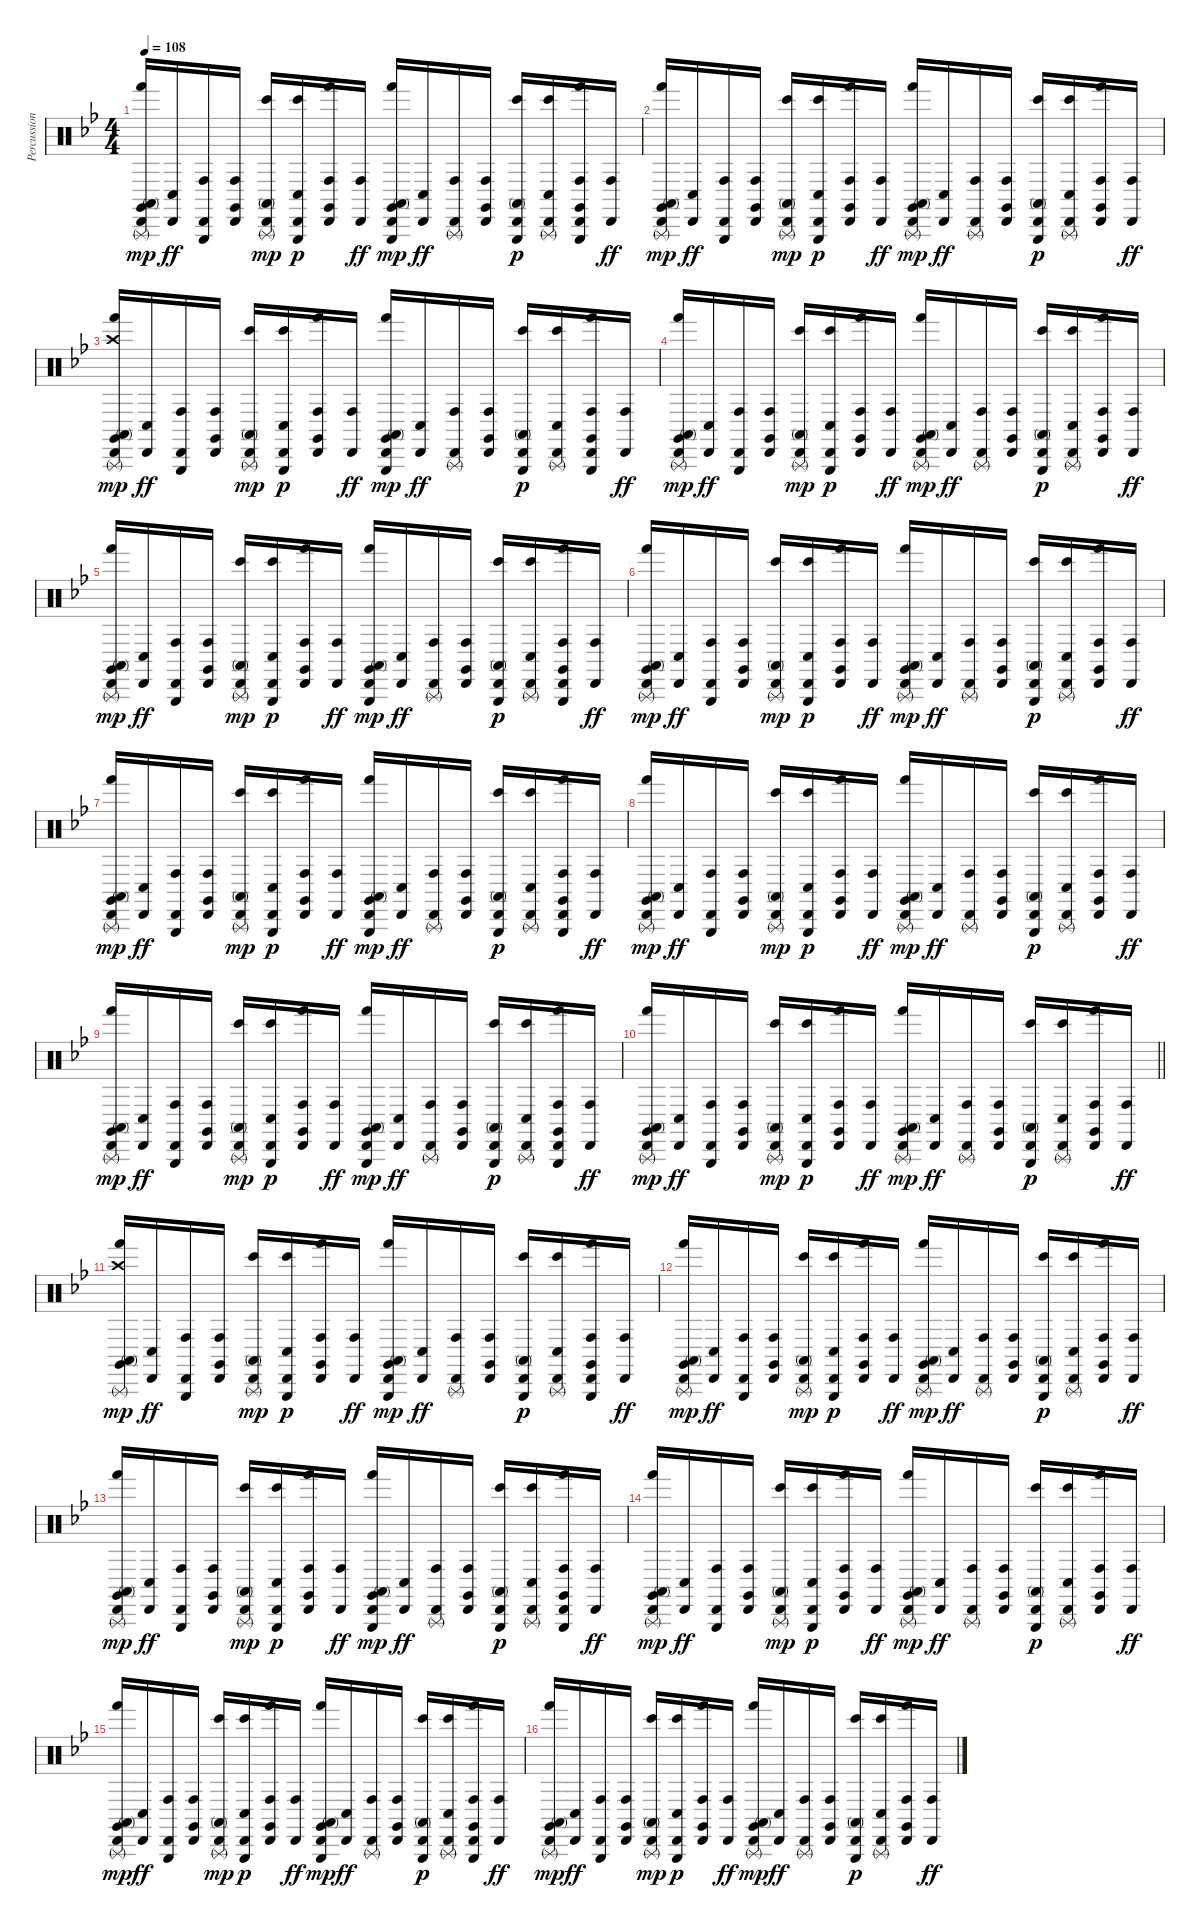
\track ("Percussion" "Percussion") {instrument percussion}
\staff {score}
\articulation defaults
\ts (4 4)
\tempo 108
\clef neutral
\ks gminor
("Cabasa (hit)" "Claves (hit)" "Triangle (rnute)" "Conga high (mute)" "Hand (hit)").16{dy mp} ("Cabasa (hit)" "Conga low (hit)").16{dy ff} ("Cabasa (hit)" "Triangle (hit)" "Conga high (hit)").16 ("Cabasa (hit)" "Claves (hit)" "Conga high (hit)").16 ("Cabasa (hit)" "Triangle (rnute)" "Conga high (mute)" "Bongo High (hit)").16{dy mp} ("Cabasa (hit)" "Triangle (hit)" "Conga low (hit)" "Bongo High (hit)").16{dy p} ("Cabasa (hit)" "Claves (hit)" "Conga high (hit)" "Hand (hit)").16 ("Cabasa (hit)" "Conga high (hit)").16{dy ff} ("Cabasa (hit)" "Claves (hit)" "Triangle (hit)" "Conga high (mute)" "Hand (hit)").16{dy mp} ("Cabasa (hit)" "Conga low (hit)").16{dy ff} ("Cabasa (hit)" "Triangle (rnute)" "Conga high (hit)").16 ("Cabasa (hit)" "Claves (hit)" "Conga high (hit)").16 ("Cabasa (hit)" "Triangle (hit)" "Conga high (mute)" "Bongo High (hit)").16{dy p} ("Cabasa (hit)" "Triangle (rnute)" "Conga low (hit)" "Bongo High (hit)").16 ("Cabasa (hit)" "Claves (hit)" "Triangle (hit)" "Conga high (hit)" "Hand (hit)").16 ("Cabasa (hit)" "Conga high (hit)").16{dy ff} |
("Cabasa (hit)" "Triangle (rnute)" "Claves (hit)" "Conga high (mute)" "Hand (hit)").16{dy mp} ("Cabasa (hit)" "Conga low (hit)").16{dy ff} ("Cabasa (hit)" "Triangle (hit)" "Conga high (hit)").16 ("Cabasa (hit)" "Claves (hit)" "Conga high (hit)").16 ("Cabasa (hit)" "Triangle (rnute)" "Conga high (mute)" "Bongo High (hit)").16{dy mp} ("Cabasa (hit)" "Triangle (hit)" "Conga low (hit)" "Bongo High (hit)").16{dy p} ("Cabasa (hit)" "Claves (hit)" "Conga high (hit)" "Hand (hit)").16 ("Cabasa (hit)" "Conga high (hit)").16{dy ff} ("Cabasa (hit)" "Triangle (rnute)" "Claves (hit)" "Conga high (mute)" "Hand (hit)").16{dy mp} ("Cabasa (hit)" "Conga low (hit)").16{dy ff} ("Cabasa (hit)" "Triangle (rnute)" "Conga high (hit)").16 ("Cabasa (hit)" "Claves (hit)" "Conga high (hit)").16 ("Cabasa (hit)" "Triangle (hit)" "Conga high (mute)" "Bongo High (hit)").16{dy p} ("Cabasa (hit)" "Triangle (rnute)" "Conga low (hit)" "Bongo High (hit)").16 ("Cabasa (hit)" "Claves (hit)" "Conga high (hit)" "Hand (hit)").16 ("Cabasa (hit)" "Conga high (hit)").16{dy ff} |
("Crash high (hit)" "Cabasa (hit)" "Claves (hit)" "Triangle (rnute)" "Conga high (mute)" "Hand (hit)").16{dy mp} ("Cabasa (hit)" "Conga low (hit)").16{dy ff} ("Cabasa (hit)" "Triangle (hit)" "Conga high (hit)").16 ("Cabasa (hit)" "Claves (hit)" "Conga high (hit)").16 ("Cabasa (hit)" "Triangle (rnute)" "Conga high (mute)" "Bongo High (hit)").16{dy mp} ("Cabasa (hit)" "Triangle (hit)" "Conga low (hit)" "Bongo High (hit)").16{dy p} ("Cabasa (hit)" "Claves (hit)" "Conga high (hit)" "Hand (hit)").16 ("Cabasa (hit)" "Conga high (hit)").16{dy ff} ("Cabasa (hit)" "Claves (hit)" "Triangle (hit)" "Conga high (mute)" "Hand (hit)").16{dy mp} ("Cabasa (hit)" "Conga low (hit)").16{dy ff} ("Cabasa (hit)" "Triangle (rnute)" "Conga high (hit)").16 ("Cabasa (hit)" "Claves (hit)" "Conga high (hit)").16 ("Cabasa (hit)" "Triangle (hit)" "Conga high (mute)" "Bongo High (hit)").16{dy p} ("Cabasa (hit)" "Triangle (rnute)" "Conga low (hit)" "Bongo High (hit)").16 ("Cabasa (hit)" "Claves (hit)" "Triangle (hit)" "Conga high (hit)" "Hand (hit)").16 ("Cabasa (hit)" "Conga high (hit)").16{dy ff} |
("Cabasa (hit)" "Triangle (rnute)" "Claves (hit)" "Conga high (mute)" "Hand (hit)").16{dy mp} ("Cabasa (hit)" "Conga low (hit)").16{dy ff} ("Cabasa (hit)" "Triangle (hit)" "Conga high (hit)").16 ("Cabasa (hit)" "Claves (hit)" "Conga high (hit)").16 ("Cabasa (hit)" "Triangle (rnute)" "Conga high (mute)" "Bongo High (hit)").16{dy mp} ("Cabasa (hit)" "Triangle (hit)" "Conga low (hit)" "Bongo High (hit)").16{dy p} ("Cabasa (hit)" "Claves (hit)" "Conga high (hit)" "Hand (hit)").16 ("Cabasa (hit)" "Conga high (hit)").16{dy ff} ("Cabasa (hit)" "Triangle (rnute)" "Claves (hit)" "Conga high (mute)" "Hand (hit)").16{dy mp} ("Cabasa (hit)" "Conga low (hit)").16{dy ff} ("Cabasa (hit)" "Triangle (rnute)" "Conga high (hit)").16 ("Cabasa (hit)" "Claves (hit)" "Conga high (hit)").16 ("Cabasa (hit)" "Triangle (hit)" "Conga high (mute)" "Bongo High (hit)").16{dy p} ("Cabasa (hit)" "Triangle (rnute)" "Conga low (hit)" "Bongo High (hit)").16 ("Cabasa (hit)" "Claves (hit)" "Conga high (hit)" "Hand (hit)").16 ("Cabasa (hit)" "Conga high (hit)").16{dy ff} |
("Cabasa (hit)" "Claves (hit)" "Triangle (rnute)" "Conga high (mute)" "Hand (hit)").16{dy mp} ("Cabasa (hit)" "Conga low (hit)").16{dy ff} ("Cabasa (hit)" "Triangle (hit)" "Conga high (hit)").16 ("Cabasa (hit)" "Claves (hit)" "Conga high (hit)").16 ("Cabasa (hit)" "Triangle (rnute)" "Conga high (mute)" "Bongo High (hit)").16{dy mp} ("Cabasa (hit)" "Triangle (hit)" "Conga low (hit)" "Bongo High (hit)").16{dy p} ("Cabasa (hit)" "Claves (hit)" "Conga high (hit)" "Hand (hit)").16 ("Cabasa (hit)" "Conga high (hit)").16{dy ff} ("Cabasa (hit)" "Claves (hit)" "Triangle (hit)" "Conga high (mute)" "Hand (hit)").16{dy mp} ("Cabasa (hit)" "Conga low (hit)").16{dy ff} ("Cabasa (hit)" "Triangle (rnute)" "Conga high (hit)").16 ("Cabasa (hit)" "Claves (hit)" "Conga high (hit)").16 ("Cabasa (hit)" "Triangle (hit)" "Conga high (mute)" "Bongo High (hit)").16{dy p} ("Cabasa (hit)" "Triangle (rnute)" "Conga low (hit)" "Bongo High (hit)").16 ("Cabasa (hit)" "Claves (hit)" "Triangle (hit)" "Conga high (hit)" "Hand (hit)").16 ("Cabasa (hit)" "Conga high (hit)").16{dy ff} |
("Cabasa (hit)" "Triangle (rnute)" "Claves (hit)" "Conga high (mute)" "Hand (hit)").16{dy mp} ("Cabasa (hit)" "Conga low (hit)").16{dy ff} ("Cabasa (hit)" "Triangle (hit)" "Conga high (hit)").16 ("Cabasa (hit)" "Claves (hit)" "Conga high (hit)").16 ("Cabasa (hit)" "Triangle (rnute)" "Conga high (mute)" "Bongo High (hit)").16{dy mp} ("Cabasa (hit)" "Triangle (hit)" "Conga low (hit)" "Bongo High (hit)").16{dy p} ("Cabasa (hit)" "Claves (hit)" "Conga high (hit)" "Hand (hit)").16 ("Cabasa (hit)" "Conga high (hit)").16{dy ff} ("Cabasa (hit)" "Triangle (rnute)" "Claves (hit)" "Conga high (mute)" "Hand (hit)").16{dy mp} ("Cabasa (hit)" "Conga low (hit)").16{dy ff} ("Cabasa (hit)" "Triangle (rnute)" "Conga high (hit)").16 ("Cabasa (hit)" "Claves (hit)" "Conga high (hit)").16 ("Cabasa (hit)" "Triangle (hit)" "Conga high (mute)" "Bongo High (hit)").16{dy p} ("Cabasa (hit)" "Triangle (rnute)" "Conga low (hit)" "Bongo High (hit)").16 ("Cabasa (hit)" "Claves (hit)" "Conga high (hit)" "Hand (hit)").16 ("Cabasa (hit)" "Conga high (hit)").16{dy ff} |
("Cabasa (hit)" "Claves (hit)" "Triangle (rnute)" "Conga high (mute)" "Hand (hit)").16{dy mp} ("Cabasa (hit)" "Conga low (hit)").16{dy ff} ("Cabasa (hit)" "Triangle (hit)" "Conga high (hit)").16 ("Cabasa (hit)" "Claves (hit)" "Conga high (hit)").16 ("Cabasa (hit)" "Triangle (rnute)" "Conga high (mute)" "Bongo High (hit)").16{dy mp} ("Cabasa (hit)" "Triangle (hit)" "Conga low (hit)" "Bongo High (hit)").16{dy p} ("Cabasa (hit)" "Claves (hit)" "Conga high (hit)" "Hand (hit)").16 ("Cabasa (hit)" "Conga high (hit)").16{dy ff} ("Cabasa (hit)" "Claves (hit)" "Triangle (hit)" "Conga high (mute)" "Hand (hit)").16{dy mp} ("Cabasa (hit)" "Conga low (hit)").16{dy ff} ("Cabasa (hit)" "Triangle (rnute)" "Conga high (hit)").16 ("Cabasa (hit)" "Claves (hit)" "Conga high (hit)").16 ("Cabasa (hit)" "Triangle (hit)" "Conga high (mute)" "Bongo High (hit)").16{dy p} ("Cabasa (hit)" "Triangle (rnute)" "Conga low (hit)" "Bongo High (hit)").16 ("Cabasa (hit)" "Claves (hit)" "Triangle (hit)" "Conga high (hit)" "Hand (hit)").16 ("Cabasa (hit)" "Conga high (hit)").16{dy ff} |
("Cabasa (hit)" "Triangle (rnute)" "Claves (hit)" "Conga high (mute)" "Hand (hit)").16{dy mp} ("Cabasa (hit)" "Conga low (hit)").16{dy ff} ("Cabasa (hit)" "Triangle (hit)" "Conga high (hit)").16 ("Cabasa (hit)" "Claves (hit)" "Conga high (hit)").16 ("Cabasa (hit)" "Triangle (rnute)" "Conga high (mute)" "Bongo High (hit)").16{dy mp} ("Cabasa (hit)" "Triangle (hit)" "Conga low (hit)" "Bongo High (hit)").16{dy p} ("Cabasa (hit)" "Claves (hit)" "Conga high (hit)" "Hand (hit)").16 ("Cabasa (hit)" "Conga high (hit)").16{dy ff} ("Cabasa (hit)" "Triangle (rnute)" "Claves (hit)" "Conga high (mute)" "Hand (hit)").16{dy mp} ("Cabasa (hit)" "Conga low (hit)").16{dy ff} ("Cabasa (hit)" "Triangle (rnute)" "Conga high (hit)").16 ("Cabasa (hit)" "Claves (hit)" "Conga high (hit)").16 ("Cabasa (hit)" "Triangle (hit)" "Conga high (mute)" "Bongo High (hit)").16{dy p} ("Cabasa (hit)" "Triangle (rnute)" "Conga low (hit)" "Bongo High (hit)").16 ("Cabasa (hit)" "Claves (hit)" "Conga high (hit)" "Hand (hit)").16 ("Cabasa (hit)" "Conga high (hit)").16{dy ff} |
("Cabasa (hit)" "Claves (hit)" "Triangle (rnute)" "Conga high (mute)" "Hand (hit)").16{dy mp} ("Cabasa (hit)" "Conga low (hit)").16{dy ff} ("Cabasa (hit)" "Triangle (hit)" "Conga high (hit)").16 ("Cabasa (hit)" "Claves (hit)" "Conga high (hit)").16 ("Cabasa (hit)" "Triangle (rnute)" "Conga high (mute)" "Bongo High (hit)").16{dy mp} ("Cabasa (hit)" "Triangle (hit)" "Conga low (hit)" "Bongo High (hit)").16{dy p} ("Cabasa (hit)" "Claves (hit)" "Conga high (hit)" "Hand (hit)").16 ("Cabasa (hit)" "Conga high (hit)").16{dy ff} ("Cabasa (hit)" "Claves (hit)" "Triangle (hit)" "Conga high (mute)" "Hand (hit)").16{dy mp} ("Cabasa (hit)" "Conga low (hit)").16{dy ff} ("Cabasa (hit)" "Triangle (rnute)" "Conga high (hit)").16 ("Cabasa (hit)" "Claves (hit)" "Conga high (hit)").16 ("Cabasa (hit)" "Triangle (hit)" "Conga high (mute)" "Bongo High (hit)").16{dy p} ("Cabasa (hit)" "Triangle (rnute)" "Conga low (hit)" "Bongo High (hit)").16 ("Cabasa (hit)" "Claves (hit)" "Triangle (hit)" "Conga high (hit)" "Hand (hit)").16 ("Cabasa (hit)" "Conga high (hit)").16{dy ff} |
\barLineRight lightlight
("Cabasa (hit)" "Triangle (rnute)" "Claves (hit)" "Conga high (mute)" "Hand (hit)").16{dy mp} ("Cabasa (hit)" "Conga low (hit)").16{dy ff} ("Cabasa (hit)" "Triangle (hit)" "Conga high (hit)").16 ("Cabasa (hit)" "Claves (hit)" "Conga high (hit)").16 ("Cabasa (hit)" "Triangle (rnute)" "Conga high (mute)" "Bongo High (hit)").16{dy mp} ("Cabasa (hit)" "Triangle (hit)" "Conga low (hit)" "Bongo High (hit)").16{dy p} ("Cabasa (hit)" "Claves (hit)" "Conga high (hit)" "Hand (hit)").16 ("Cabasa (hit)" "Conga high (hit)").16{dy ff} ("Cabasa (hit)" "Triangle (rnute)" "Claves (hit)" "Conga high (mute)" "Hand (hit)").16{dy mp} ("Cabasa (hit)" "Conga low (hit)").16{dy ff} ("Cabasa (hit)" "Triangle (rnute)" "Conga high (hit)").16 ("Cabasa (hit)" "Claves (hit)" "Conga high (hit)").16 ("Cabasa (hit)" "Triangle (hit)" "Conga high (mute)" "Bongo High (hit)").16{dy p} ("Cabasa (hit)" "Triangle (rnute)" "Conga low (hit)" "Bongo High (hit)").16 ("Cabasa (hit)" "Claves (hit)" "Conga high (hit)" "Hand (hit)").16 ("Cabasa (hit)" "Conga high (hit)").16{dy ff} |
\section ("" "")
("Crash high (hit)" "Claves (hit)" "Triangle (rnute)" "Conga high (mute)" "Hand (hit)").16{dy mp} ("Cabasa (hit)" "Conga low (hit)").16{dy ff} ("Cabasa (hit)" "Triangle (hit)" "Conga high (hit)").16 ("Cabasa (hit)" "Claves (hit)" "Conga high (hit)").16 ("Cabasa (hit)" "Triangle (rnute)" "Conga high (mute)" "Bongo High (hit)").16{dy mp} ("Cabasa (hit)" "Triangle (hit)" "Conga low (hit)" "Bongo High (hit)").16{dy p} ("Cabasa (hit)" "Claves (hit)" "Conga high (hit)" "Hand (hit)").16 ("Cabasa (hit)" "Conga high (hit)").16{dy ff} ("Cabasa (hit)" "Claves (hit)" "Triangle (hit)" "Conga high (mute)" "Hand (hit)").16{dy mp} ("Cabasa (hit)" "Conga low (hit)").16{dy ff} ("Cabasa (hit)" "Triangle (rnute)" "Conga high (hit)").16 ("Cabasa (hit)" "Claves (hit)" "Conga high (hit)").16 ("Cabasa (hit)" "Triangle (hit)" "Conga high (mute)" "Bongo High (hit)").16{dy p} ("Cabasa (hit)" "Triangle (rnute)" "Conga low (hit)" "Bongo High (hit)").16 ("Cabasa (hit)" "Claves (hit)" "Triangle (hit)" "Conga high (hit)" "Hand (hit)").16 ("Cabasa (hit)" "Conga high (hit)").16{dy ff} |
("Cabasa (hit)" "Triangle (rnute)" "Claves (hit)" "Conga high (mute)" "Hand (hit)").16{dy mp} ("Cabasa (hit)" "Conga low (hit)").16{dy ff} ("Cabasa (hit)" "Triangle (hit)" "Conga high (hit)").16 ("Cabasa (hit)" "Claves (hit)" "Conga high (hit)").16 ("Cabasa (hit)" "Triangle (rnute)" "Conga high (mute)" "Bongo High (hit)").16{dy mp} ("Cabasa (hit)" "Triangle (hit)" "Conga low (hit)" "Bongo High (hit)").16{dy p} ("Cabasa (hit)" "Claves (hit)" "Conga high (hit)" "Hand (hit)").16 ("Cabasa (hit)" "Conga high (hit)").16{dy ff} ("Cabasa (hit)" "Triangle (rnute)" "Claves (hit)" "Conga high (mute)" "Hand (hit)").16{dy mp} ("Cabasa (hit)" "Conga low (hit)").16{dy ff} ("Cabasa (hit)" "Triangle (rnute)" "Conga high (hit)").16 ("Cabasa (hit)" "Claves (hit)" "Conga high (hit)").16 ("Cabasa (hit)" "Triangle (hit)" "Conga high (mute)" "Bongo High (hit)").16{dy p} ("Cabasa (hit)" "Triangle (rnute)" "Conga low (hit)" "Bongo High (hit)").16 ("Cabasa (hit)" "Claves (hit)" "Conga high (hit)" "Hand (hit)").16 ("Cabasa (hit)" "Conga high (hit)").16{dy ff} |
("Cabasa (hit)" "Claves (hit)" "Triangle (rnute)" "Conga high (mute)" "Hand (hit)").16{dy mp} ("Cabasa (hit)" "Conga low (hit)").16{dy ff} ("Cabasa (hit)" "Triangle (hit)" "Conga high (hit)").16 ("Cabasa (hit)" "Claves (hit)" "Conga high (hit)").16 ("Cabasa (hit)" "Triangle (rnute)" "Conga high (mute)" "Bongo High (hit)").16{dy mp} ("Cabasa (hit)" "Triangle (hit)" "Conga low (hit)" "Bongo High (hit)").16{dy p} ("Cabasa (hit)" "Claves (hit)" "Conga high (hit)" "Hand (hit)").16 ("Cabasa (hit)" "Conga high (hit)").16{dy ff} ("Cabasa (hit)" "Claves (hit)" "Triangle (hit)" "Conga high (mute)" "Hand (hit)").16{dy mp} ("Cabasa (hit)" "Conga low (hit)").16{dy ff} ("Cabasa (hit)" "Triangle (rnute)" "Conga high (hit)").16 ("Cabasa (hit)" "Claves (hit)" "Conga high (hit)").16 ("Cabasa (hit)" "Triangle (hit)" "Conga high (mute)" "Bongo High (hit)").16{dy p} ("Cabasa (hit)" "Triangle (rnute)" "Conga low (hit)" "Bongo High (hit)").16 ("Cabasa (hit)" "Claves (hit)" "Triangle (hit)" "Conga high (hit)" "Hand (hit)").16 ("Cabasa (hit)" "Conga high (hit)").16{dy ff} |
("Cabasa (hit)" "Triangle (rnute)" "Claves (hit)" "Conga high (mute)" "Hand (hit)").16{dy mp} ("Cabasa (hit)" "Conga low (hit)").16{dy ff} ("Cabasa (hit)" "Triangle (hit)" "Conga high (hit)").16 ("Cabasa (hit)" "Claves (hit)" "Conga high (hit)").16 ("Cabasa (hit)" "Triangle (rnute)" "Conga high (mute)" "Bongo High (hit)").16{dy mp} ("Cabasa (hit)" "Triangle (hit)" "Conga low (hit)" "Bongo High (hit)").16{dy p} ("Cabasa (hit)" "Claves (hit)" "Conga high (hit)" "Hand (hit)").16 ("Cabasa (hit)" "Conga high (hit)").16{dy ff} ("Cabasa (hit)" "Triangle (rnute)" "Claves (hit)" "Conga high (mute)" "Hand (hit)").16{dy mp} ("Cabasa (hit)" "Conga low (hit)").16{dy ff} ("Cabasa (hit)" "Triangle (rnute)" "Conga high (hit)").16 ("Cabasa (hit)" "Claves (hit)" "Conga high (hit)").16 ("Cabasa (hit)" "Triangle (hit)" "Conga high (mute)" "Bongo High (hit)").16{dy p} ("Cabasa (hit)" "Triangle (rnute)" "Conga low (hit)" "Bongo High (hit)").16 ("Cabasa (hit)" "Claves (hit)" "Conga high (hit)" "Hand (hit)").16 ("Cabasa (hit)" "Conga high (hit)").16{dy ff} |
("Cabasa (hit)" "Claves (hit)" "Triangle (rnute)" "Conga high (mute)" "Hand (hit)").16{dy mp} ("Cabasa (hit)" "Conga low (hit)").16{dy ff} ("Cabasa (hit)" "Triangle (hit)" "Conga high (hit)").16 ("Cabasa (hit)" "Claves (hit)" "Conga high (hit)").16 ("Cabasa (hit)" "Triangle (rnute)" "Conga high (mute)" "Bongo High (hit)").16{dy mp} ("Cabasa (hit)" "Triangle (hit)" "Conga low (hit)" "Bongo High (hit)").16{dy p} ("Cabasa (hit)" "Claves (hit)" "Conga high (hit)" "Hand (hit)").16 ("Cabasa (hit)" "Conga high (hit)").16{dy ff} ("Cabasa (hit)" "Claves (hit)" "Triangle (hit)" "Conga high (mute)" "Hand (hit)").16{dy mp} ("Cabasa (hit)" "Conga low (hit)").16{dy ff} ("Cabasa (hit)" "Triangle (rnute)" "Conga high (hit)").16 ("Cabasa (hit)" "Claves (hit)" "Conga high (hit)").16 ("Cabasa (hit)" "Triangle (hit)" "Conga high (mute)" "Bongo High (hit)").16{dy p} ("Cabasa (hit)" "Triangle (rnute)" "Conga low (hit)" "Bongo High (hit)").16 ("Cabasa (hit)" "Claves (hit)" "Triangle (hit)" "Conga high (hit)" "Hand (hit)").16 ("Cabasa (hit)" "Conga high (hit)").16{dy ff} |
("Cabasa (hit)" "Triangle (rnute)" "Claves (hit)" "Conga high (mute)" "Hand (hit)").16{dy mp} ("Cabasa (hit)" "Conga low (hit)").16{dy ff} ("Cabasa (hit)" "Triangle (hit)" "Conga high (hit)").16 ("Cabasa (hit)" "Claves (hit)" "Conga high (hit)").16 ("Cabasa (hit)" "Triangle (rnute)" "Conga high (mute)" "Bongo High (hit)").16{dy mp} ("Cabasa (hit)" "Triangle (hit)" "Conga low (hit)" "Bongo High (hit)").16{dy p} ("Cabasa (hit)" "Claves (hit)" "Conga high (hit)" "Hand (hit)").16 ("Cabasa (hit)" "Conga high (hit)").16{dy ff} ("Cabasa (hit)" "Triangle (rnute)" "Claves (hit)" "Conga high (mute)" "Hand (hit)").16{dy mp} ("Cabasa (hit)" "Conga low (hit)").16{dy ff} ("Cabasa (hit)" "Triangle (rnute)" "Conga high (hit)").16 ("Cabasa (hit)" "Claves (hit)" "Conga high (hit)").16 ("Cabasa (hit)" "Triangle (hit)" "Conga high (mute)" "Bongo High (hit)").16{dy p} ("Cabasa (hit)" "Triangle (rnute)" "Conga low (hit)" "Bongo High (hit)").16 ("Cabasa (hit)" "Claves (hit)" "Conga high (hit)" "Hand (hit)").16 ("Cabasa (hit)" "Conga high (hit)").16{dy ff}
